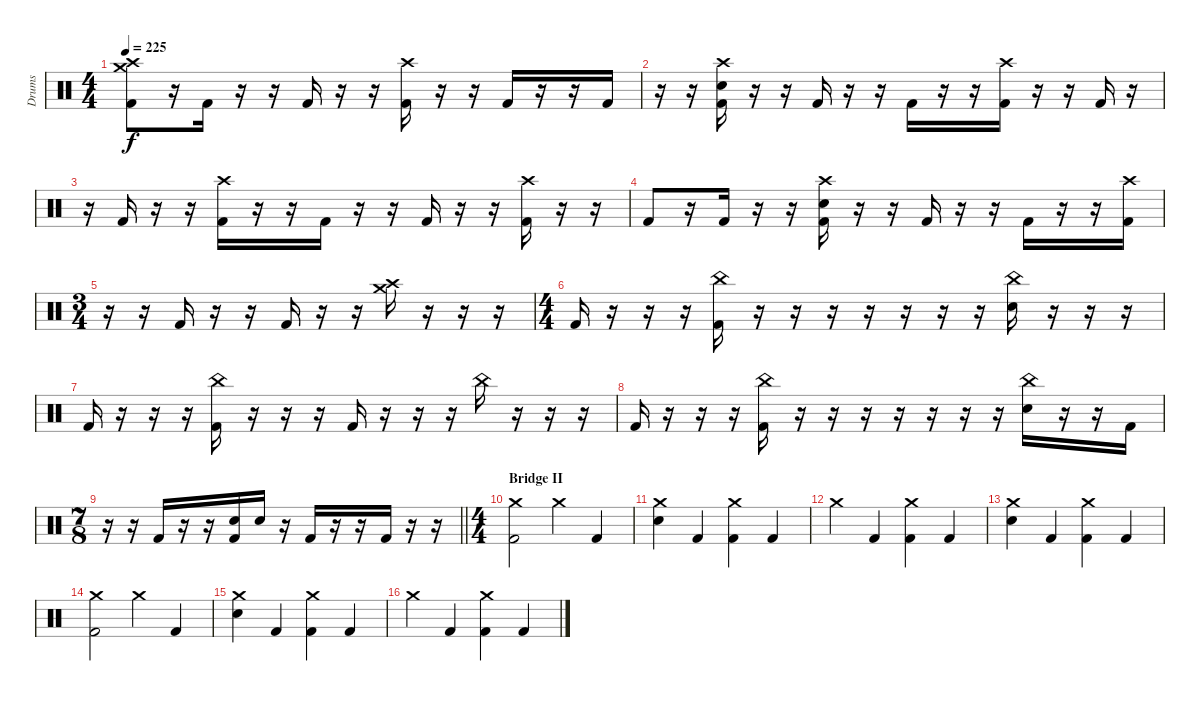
\track ("Drums" "Drums") {instrument percussion}
\staff {score}
\articulation defaults
\ts (4 4)
\tempo 225
\clef neutral
\ks c
("Crash high (hit)" "Crash medium (hit)" "Kick (hit) 2").8{dy f} r.16 "Kick (hit) 2".16 r.16 r.16 "Kick (hit) 2".16 r.16 r.16 ("Crash high (hit)" "Kick (hit) 2").16 r.16 r.16 "Kick (hit) 2".16 r.16 r.16 "Kick (hit) 2".16 |
r.16 r.16 ("Crash high (hit)" "Electric Snare (hit)" "Kick (hit) 2").16 r.16 r.16 "Kick (hit) 2".16 r.16 r.16 "Kick (hit) 2".16 r.16 r.16 ("Crash high (hit)" "Kick (hit) 2").16 r.16 r.16 "Kick (hit) 2".16 r.16 |
r.16 "Kick (hit) 2".16 r.16 r.16 ("Crash high (hit)" "Kick (hit) 2").16 r.16 r.16 "Kick (hit) 2".16 r.16 r.16 "Kick (hit) 2".16 r.16 r.16 ("Crash high (hit)" "Kick (hit) 2").16 r.16 r.16 |
"Kick (hit) 2".8 r.16 "Kick (hit) 2".16 r.16 r.16 ("Crash high (hit)" "Electric Snare (hit)" "Kick (hit) 2").16 r.16 r.16 "Kick (hit) 2".16 r.16 r.16 "Kick (hit) 2".16 r.16 r.16 ("Crash high (hit)" "Kick (hit) 2").16 |
\ts (3 4)
r.16 r.16 "Kick (hit) 2".16 r.16 r.16 "Kick (hit) 2".16 r.16 r.16 ("Crash high (hit)" "Crash medium (hit)").16 r.16 r.16 r.16 |
\ts (4 4)
"Kick (hit) 2".16 r.16 r.16 r.16 ("China (hit)" "Kick (hit) 2").16 r.16 r.16 r.16 r.16 r.16 r.16 r.16 ("China (hit)" "Electric Snare (hit)").16 r.16 r.16 r.16 |
"Kick (hit) 2".16 r.16 r.16 r.16 ("China (hit)" "Kick (hit) 2").16 r.16 r.16 r.16 "Kick (hit) 2".16 r.16 r.16 r.16 "China (hit)".16 r.16 r.16 r.16 |
"Kick (hit) 2".16 r.16 r.16 r.16 ("China (hit)" "Kick (hit) 2").16 r.16 r.16 r.16 r.16 r.16 r.16 r.16 ("China (hit)" "Electric Snare (hit)").16 r.16 r.16 "Kick (hit) 2".16 |
\ts (7 8)
\barLineRight lightlight
r.16 r.16 "Kick (hit) 2".16 r.16 r.16 ("Electric Snare (hit)" "Kick (hit) 2").16 "Electric Snare (hit)".16 r.16 "Kick (hit) 2".16 r.16 r.16 "Kick (hit) 2".16 r.16 r.16 |
\ts (4 4)
\section ("" "Bridge II")
("Crash medium (hit)" "Kick (hit) 2").2 "Crash medium (hit)".4 "Kick (hit) 2".4 |
("Crash medium (hit)" "Electric Snare (hit)").4 "Kick (hit) 2".4 ("Crash medium (hit)" "Kick (hit) 2").4 "Kick (hit) 2".4 |
"Crash medium (hit)".4 "Kick (hit) 2".4 ("Crash medium (hit)" "Kick (hit) 2").4 "Kick (hit) 2".4 |
("Crash medium (hit)" "Electric Snare (hit)").4 "Kick (hit) 2".4 ("Crash medium (hit)" "Kick (hit) 2").4 "Kick (hit) 2".4 |
("Crash medium (hit)" "Kick (hit) 2").2 "Crash medium (hit)".4 "Kick (hit) 2".4 |
("Crash medium (hit)" "Electric Snare (hit)").4 "Kick (hit) 2".4 ("Crash medium (hit)" "Kick (hit) 2").4 "Kick (hit) 2".4 |
"Crash medium (hit)".4 "Kick (hit) 2".4 ("Crash medium (hit)" "Kick (hit) 2").4 "Kick (hit) 2".4
